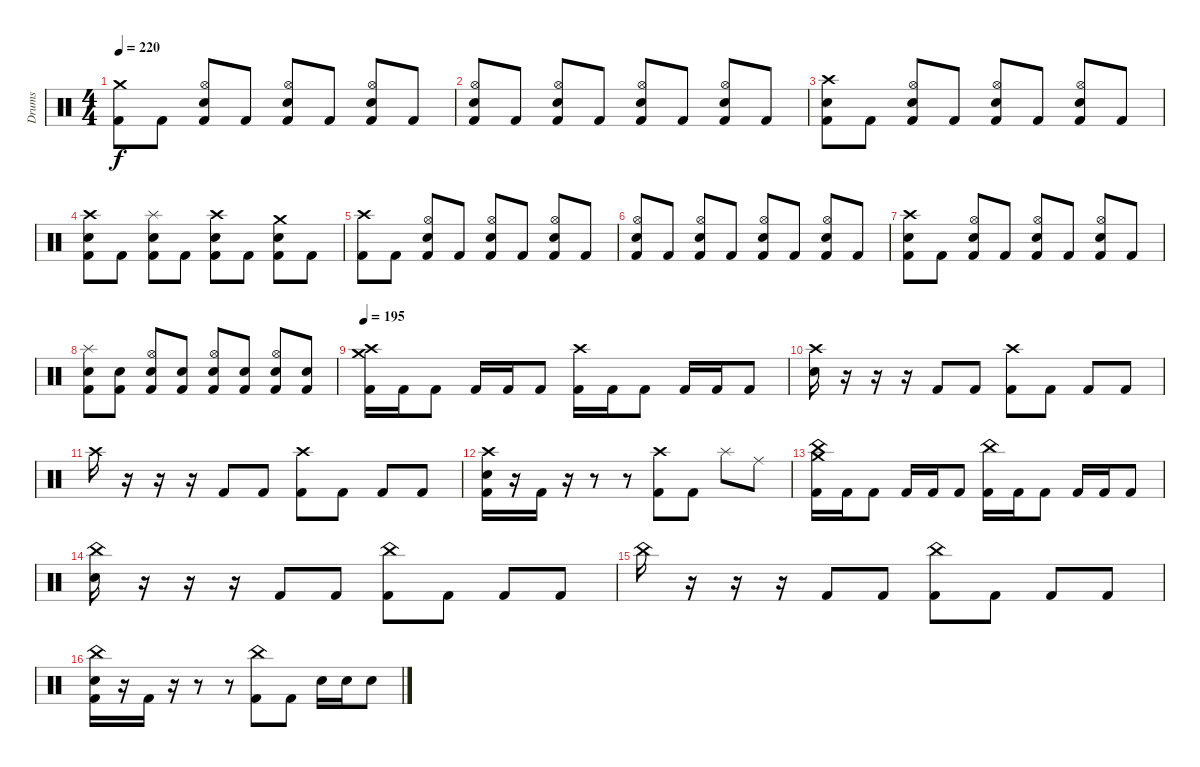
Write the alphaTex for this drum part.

\track ("Drums" "Drums") {instrument percussion}
\staff {score}
\articulation defaults
\ts (4 4)
\tempo 220
\clef neutral
\ks c
("Crash medium (hit)" "Kick (hit) 2").8{dy f} "Kick (hit) 2".8 ("Hi-Hat (open)" "Electric Snare (hit)" "Kick (hit) 2").8 "Kick (hit) 2".8 ("Hi-Hat (open)" "Electric Snare (hit)" "Kick (hit) 2").8 "Kick (hit) 2".8 ("Hi-Hat (open)" "Electric Snare (hit)" "Kick (hit) 2").8 "Kick (hit) 2".8 |
("Hi-Hat (open)" "Electric Snare (hit)" "Kick (hit) 2").8 "Kick (hit) 2".8 ("Hi-Hat (open)" "Electric Snare (hit)" "Kick (hit) 2").8 "Kick (hit) 2".8 ("Hi-Hat (open)" "Electric Snare (hit)" "Kick (hit) 2").8 "Kick (hit) 2".8 ("Hi-Hat (open)" "Electric Snare (hit)" "Kick (hit) 2").8 "Kick (hit) 2".8 |
("Crash high (hit)" "Electric Snare (hit)" "Kick (hit) 2").8 "Kick (hit) 2".8 ("Hi-Hat (open)" "Electric Snare (hit)" "Kick (hit) 2").8 "Kick (hit) 2".8 ("Hi-Hat (open)" "Electric Snare (hit)" "Kick (hit) 2").8 "Kick (hit) 2".8 ("Hi-Hat (open)" "Electric Snare (hit)" "Kick (hit) 2").8 "Kick (hit) 2".8 |
("Crash high (hit)" "Electric Snare (hit)" "Kick (hit) 2").8 "Kick (hit) 2".8 ("Splash (hit)" "Electric Snare (hit)" "Kick (hit) 2").8 "Kick (hit) 2".8 ("Crash high (hit)" "Electric Snare (hit)" "Kick (hit) 2").8 "Kick (hit) 2".8 ("Crash medium (hit)" "Electric Snare (hit)" "Kick (hit) 2").8 "Kick (hit) 2".8 |
("Crash high (hit)" "Kick (hit) 2").8 "Kick (hit) 2".8 ("Hi-Hat (open)" "Electric Snare (hit)" "Kick (hit) 2").8 "Kick (hit) 2".8 ("Hi-Hat (open)" "Electric Snare (hit)" "Kick (hit) 2").8 "Kick (hit) 2".8 ("Hi-Hat (open)" "Electric Snare (hit)" "Kick (hit) 2").8 "Kick (hit) 2".8 |
("Hi-Hat (open)" "Electric Snare (hit)" "Kick (hit) 2").8 "Kick (hit) 2".8 ("Hi-Hat (open)" "Electric Snare (hit)" "Kick (hit) 2").8 "Kick (hit) 2".8 ("Hi-Hat (open)" "Electric Snare (hit)" "Kick (hit) 2").8 "Kick (hit) 2".8 ("Hi-Hat (open)" "Electric Snare (hit)" "Kick (hit) 2").8 "Kick (hit) 2".8 |
("Crash high (hit)" "Electric Snare (hit)" "Kick (hit) 2").8 "Kick (hit) 2".8 ("Hi-Hat (open)" "Electric Snare (hit)" "Kick (hit) 2").8 "Kick (hit) 2".8 ("Hi-Hat (open)" "Electric Snare (hit)" "Kick (hit) 2").8 "Kick (hit) 2".8 ("Hi-Hat (open)" "Electric Snare (hit)" "Kick (hit) 2").8 "Kick (hit) 2".8 |
("Splash (hit)" "Electric Snare (hit)" "Kick (hit) 2").8 ("Electric Snare (hit)" "Kick (hit) 2").8 ("Hi-Hat (open)" "Electric Snare (hit)" "Kick (hit) 2").8 ("Electric Snare (hit)" "Kick (hit) 2").8 ("Hi-Hat (open)" "Electric Snare (hit)" "Kick (hit) 2").8 ("Electric Snare (hit)" "Kick (hit) 2").8 ("Hi-Hat (open)" "Electric Snare (hit)" "Kick (hit) 2").8 ("Electric Snare (hit)" "Kick (hit) 2").8 |
\tempo 195
("Crash high (hit)" "Crash medium (hit)" "Kick (hit) 2").16 "Kick (hit) 2".16 "Kick (hit) 2".8 "Kick (hit) 2".16 "Kick (hit) 2".16 "Kick (hit) 2".8 ("Crash high (hit)" "Kick (hit) 2").16 "Kick (hit) 2".16 "Kick (hit) 2".8 "Kick (hit) 2".16 "Kick (hit) 2".16 "Kick (hit) 2".8 |
("Crash high (hit)" "Electric Snare (hit)").16 r.16 r.16 r.16 "Kick (hit) 2".8 "Kick (hit) 2".8 ("Crash high (hit)" "Kick (hit) 2").8 "Kick (hit) 2".8 "Kick (hit) 2".8 "Kick (hit) 2".8 |
"Crash high (hit)".16 r.16 r.16 r.16 "Kick (hit) 2".8 "Kick (hit) 2".8 ("Crash high (hit)" "Kick (hit) 2").8 "Kick (hit) 2".8 "Kick (hit) 2".8 "Kick (hit) 2".8 |
("Crash high (hit)" "Electric Snare (hit)" "Kick (hit) 2").16 r.16 "Kick (hit) 2".16 r.16 r.8 r.8 ("Crash high (hit)" "Kick (hit) 2").8 "Kick (hit) 2".8 "Splash (hit)".8 "Ride (middle)".8 |
("China (hit)" "Crash medium (hit)" "Kick (hit) 2").16 "Kick (hit) 2".16 "Kick (hit) 2".8 "Kick (hit) 2".16 "Kick (hit) 2".16 "Kick (hit) 2".8 ("China (hit)" "Kick (hit) 2").16 "Kick (hit) 2".16 "Kick (hit) 2".8 "Kick (hit) 2".16 "Kick (hit) 2".16 "Kick (hit) 2".8 |
("China (hit)" "Electric Snare (hit)").16 r.16 r.16 r.16 "Kick (hit) 2".8 "Kick (hit) 2".8 ("China (hit)" "Kick (hit) 2").8 "Kick (hit) 2".8 "Kick (hit) 2".8 "Kick (hit) 2".8 |
"China (hit)".16 r.16 r.16 r.16 "Kick (hit) 2".8 "Kick (hit) 2".8 ("China (hit)" "Kick (hit) 2").8 "Kick (hit) 2".8 "Kick (hit) 2".8 "Kick (hit) 2".8 |
("China (hit)" "Electric Snare (hit)" "Kick (hit) 2").16 r.16 "Kick (hit) 2".16 r.16 r.8 r.8 ("China (hit)" "Kick (hit) 2").8 "Kick (hit) 2".8 "Electric Snare (hit)".16 "Electric Snare (hit)".16 "Electric Snare (hit)".8
